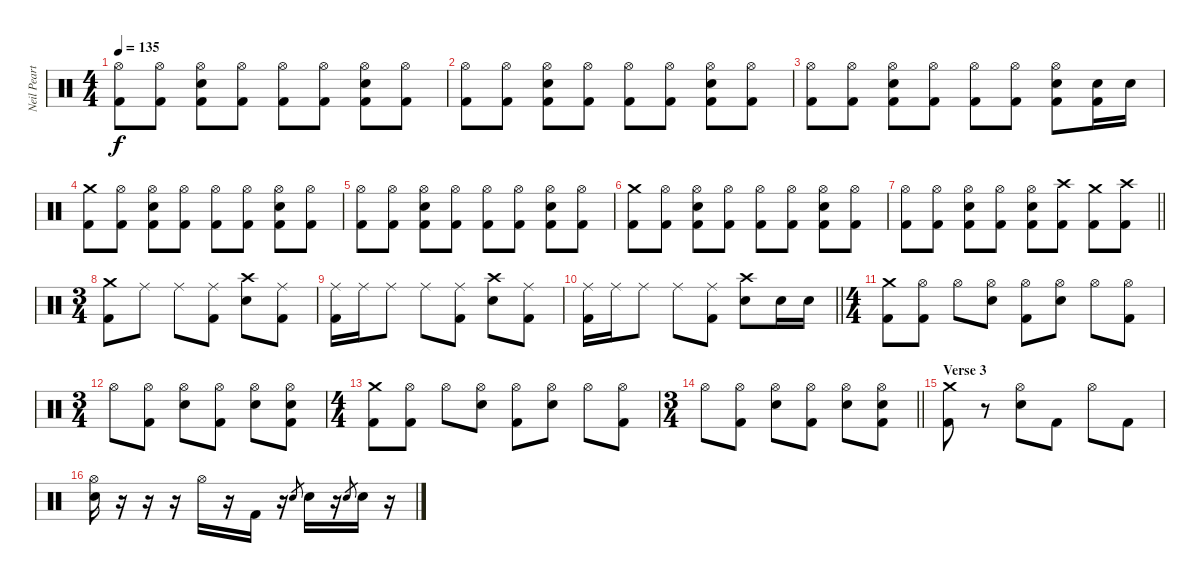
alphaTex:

\track ("Neil Peart" "Neil Peart") {instrument percussion}
\staff {score}
\articulation defaults
\ts (4 4)
\tempo 135
\clef neutral
\ks c
("Hi-Hat (open)" "Kick (hit) 2").8{dy f} ("Hi-Hat (open)" "Kick (hit) 2").8 ("Hi-Hat (open)" "Snare (hit) 2" "Kick (hit) 2").8 ("Hi-Hat (open)" "Kick (hit) 2").8 ("Hi-Hat (open)" "Kick (hit) 2").8 ("Hi-Hat (open)" "Kick (hit) 2").8 ("Hi-Hat (open)" "Snare (hit) 2" "Kick (hit) 2").8 ("Hi-Hat (open)" "Kick (hit) 2").8 |
("Hi-Hat (open)" "Kick (hit) 2").8 ("Hi-Hat (open)" "Kick (hit) 2").8 ("Hi-Hat (open)" "Snare (hit) 2" "Kick (hit) 2").8 ("Hi-Hat (open)" "Kick (hit) 2").8 ("Hi-Hat (open)" "Kick (hit) 2").8 ("Hi-Hat (open)" "Kick (hit) 2").8 ("Hi-Hat (open)" "Snare (hit) 2" "Kick (hit) 2").8 ("Hi-Hat (open)" "Kick (hit) 2").8 |
("Hi-Hat (open)" "Kick (hit) 2").8 ("Hi-Hat (open)" "Kick (hit) 2").8 ("Hi-Hat (open)" "Snare (hit) 2" "Kick (hit) 2").8 ("Hi-Hat (open)" "Kick (hit) 2").8 ("Hi-Hat (open)" "Kick (hit) 2").8 ("Hi-Hat (open)" "Kick (hit) 2").8 ("Hi-Hat (open)" "Snare (hit) 2" "Kick (hit) 2").8 ("Snare (hit) 2" "Kick (hit) 2").16 "Snare (hit) 2".16 |
("Crash medium (hit)" "Kick (hit) 2").8 ("Hi-Hat (open)" "Kick (hit) 2").8 ("Hi-Hat (open)" "Snare (hit) 2" "Kick (hit) 2").8 ("Hi-Hat (open)" "Kick (hit) 2").8 ("Hi-Hat (open)" "Kick (hit) 2").8 ("Hi-Hat (open)" "Kick (hit) 2").8 ("Hi-Hat (open)" "Snare (hit) 2" "Kick (hit) 2").8 ("Hi-Hat (open)" "Kick (hit) 2").8 |
("Hi-Hat (open)" "Kick (hit) 2").8 ("Hi-Hat (open)" "Kick (hit) 2").8 ("Hi-Hat (open)" "Snare (hit) 2" "Kick (hit) 2").8 ("Hi-Hat (open)" "Kick (hit) 2").8 ("Hi-Hat (open)" "Kick (hit) 2").8 ("Hi-Hat (open)" "Kick (hit) 2").8 ("Hi-Hat (open)" "Snare (hit) 2" "Kick (hit) 2").8 ("Hi-Hat (open)" "Kick (hit) 2").8 |
("Crash medium (hit)" "Kick (hit) 2").8 ("Hi-Hat (open)" "Kick (hit) 2").8 ("Hi-Hat (open)" "Snare (hit) 2" "Kick (hit) 2").8 ("Hi-Hat (open)" "Kick (hit) 2").8 ("Hi-Hat (open)" "Kick (hit) 2").8 ("Hi-Hat (open)" "Kick (hit) 2").8 ("Hi-Hat (open)" "Snare (hit) 2" "Kick (hit) 2").8 ("Hi-Hat (open)" "Kick (hit) 2").8 |
\barLineRight lightlight
("Hi-Hat (open)" "Kick (hit) 2").8 ("Hi-Hat (open)" "Kick (hit) 2").8 ("Hi-Hat (open)" "Snare (hit) 2" "Kick (hit) 2").8 ("Hi-Hat (open)" "Kick (hit) 2").8 ("Hi-Hat (open)" "Snare (hit) 2" "Kick (hit) 2").8 ("Crash high (hit)" "Kick (hit) 2").8 ("Crash medium (hit)" "Kick (hit) 2").8 ("Crash high (hit)" "Kick (hit) 2").8 |
\ts (3 4)
("Crash medium (hit)" "Kick (hit) 2").8 "Ride (middle)".8 "Ride (middle)".8 ("Ride (middle)" "Kick (hit) 2").8 ("Crash high (hit)" "Snare (hit) 2").8 ("Ride (middle)" "Kick (hit) 2").8 |
("Ride (middle)" "Kick (hit) 2").16 "Ride (middle)".16 "Ride (middle)".8 "Ride (middle)".8 ("Ride (middle)" "Kick (hit) 2").8 ("Crash high (hit)" "Snare (hit) 2").8 ("Ride (middle)" "Kick (hit) 2").8 |
\barLineRight lightlight
("Ride (middle)" "Kick (hit) 2").16 "Ride (middle)".16 "Ride (middle)".8 "Ride (middle)".8 ("Ride (middle)" "Kick (hit) 2").8 ("Crash high (hit)" "Snare (hit) 2").8 "Snare (hit) 2".16 "Snare (hit) 2".16 |
\ts (4 4)
("Crash medium (hit)" "Kick (hit) 2").8 ("Hi-Hat (open)" "Kick (hit) 2").8 "Hi-Hat (open)".8 ("Hi-Hat (open)" "Snare (hit) 2").8 ("Hi-Hat (open)" "Kick (hit) 2").8 ("Hi-Hat (open)" "Snare (hit) 2").8 "Hi-Hat (open)".8 ("Hi-Hat (open)" "Kick (hit) 2").8 |
\ts (3 4)
"Hi-Hat (open)".8 ("Hi-Hat (open)" "Kick (hit) 2").8 ("Hi-Hat (open)" "Snare (hit) 2").8 ("Hi-Hat (open)" "Kick (hit) 2").8 ("Hi-Hat (open)" "Snare (hit) 2").8 ("Hi-Hat (open)" "Snare (hit) 2" "Kick (hit) 2").8 |
\ts (4 4)
("Crash medium (hit)" "Kick (hit) 2").8 ("Hi-Hat (open)" "Kick (hit) 2").8 "Hi-Hat (open)".8 ("Hi-Hat (open)" "Snare (hit) 2").8 ("Hi-Hat (open)" "Kick (hit) 2").8 ("Hi-Hat (open)" "Snare (hit) 2").8 "Hi-Hat (open)".8 ("Hi-Hat (open)" "Kick (hit) 2").8 |
\ts (3 4)
\barLineRight lightlight "Hi-Hat (open)".8
("Hi-Hat (open)" "Kick (hit) 2").8 ("Hi-Hat (open)" "Snare (hit) 2").8 ("Hi-Hat (open)" "Kick (hit) 2").8 ("Hi-Hat (open)" "Snare (hit) 2").8 ("Hi-Hat (open)" "Snare (hit) 2" "Kick (hit) 2").8 |
\section ("" "Verse 3")
("Crash medium (hit)" "Kick (hit) 2").8 r.8 ("Hi-Hat (open)" "Snare (hit) 2").8 "Kick (hit) 2".8 "Hi-Hat (open)".8 "Kick (hit) 2".8 |
("Hi-Hat (open)" "Snare (hit) 2").16 r.16 r.16 r.16 "Hi-Hat (open)".16 r.16 "Kick (hit) 2".16 r.16 "Snare (hit) 2".8{gr} "Snare (hit) 2".16 r.16 "Snare (hit) 2".8{gr} "Snare (hit) 2".16 r.16
